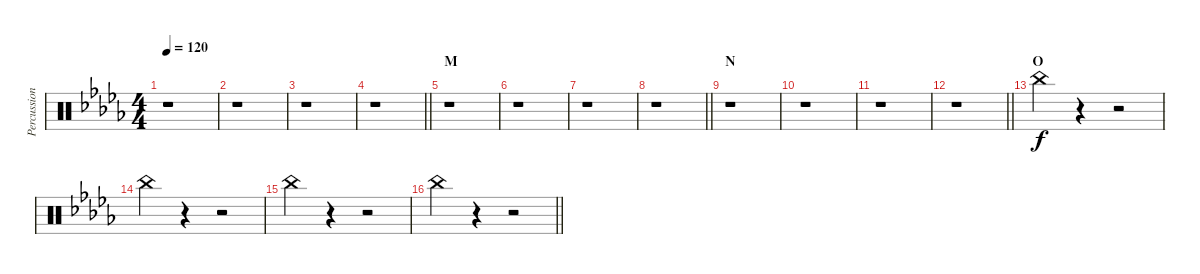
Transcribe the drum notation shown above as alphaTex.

\track ("Percussion" "Percussion") {instrument percussion}
\staff {score}
\articulation defaults
\ts (4 4)
\tempo 120
\clef neutral
\ks db
r.1{dy f} |
r.1 |
r.1 |
\barLineRight lightlight
r.1 |
\section ("" "M")
r.1 |
r.1 |
r.1 |
\barLineRight lightlight
r.1 |
\section ("" "N")
r.1 |
r.1 |
r.1 |
\barLineRight lightlight
r.1 |
\section ("" "O")
"China (hit)".4 r.4 r.2 |
"China (hit)".4 r.4 r.2 |
"China (hit)".4 r.4 r.2 |
\barLineRight lightlight "China (hit)".4
r.4 r.2
